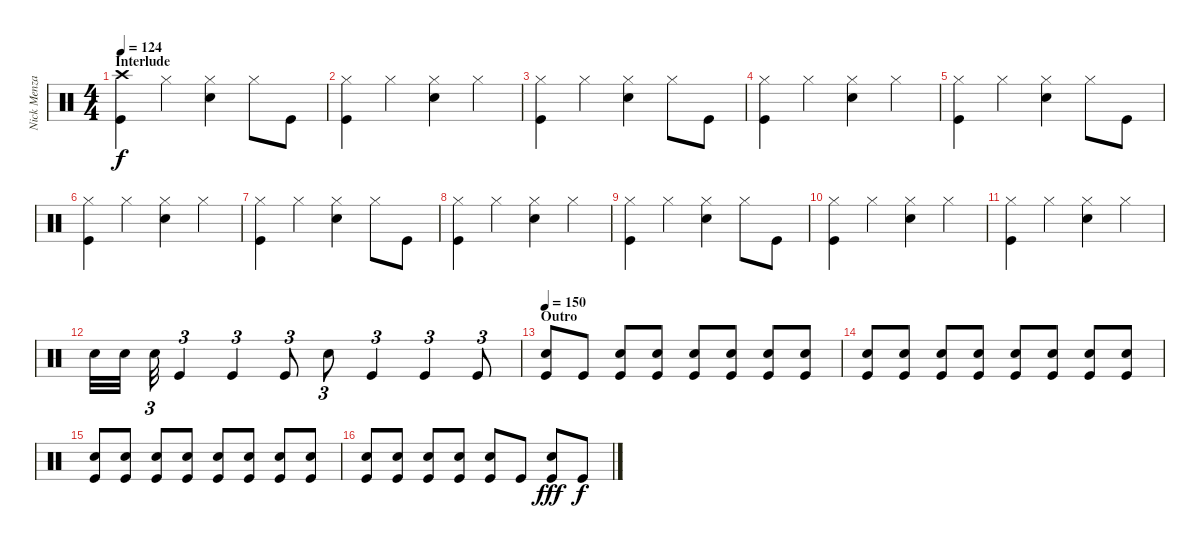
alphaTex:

\track ("Nick Menza" "Nick Menza") {instrument percussion}
\staff {score}
\articulation defaults
\ts (4 4)
\section ("" "Interlude")
\tempo 124
\clef neutral
\ks c
("Crash high (hit)" "Kick (hit)").4{dy f} "Hi-Hat (closed)".4 ("Hi-Hat (closed)" "Snare (hit) 2").4 "Hi-Hat (closed)".8 "Kick (hit)".8 |
("Hi-Hat (closed)" "Kick (hit)").4 "Hi-Hat (closed)".4 ("Hi-Hat (closed)" "Snare (hit) 2").4 "Hi-Hat (closed)".4 |
("Hi-Hat (closed)" "Kick (hit)").4 "Hi-Hat (closed)".4 ("Hi-Hat (closed)" "Snare (hit) 2").4 "Hi-Hat (closed)".8 "Kick (hit)".8 |
("Hi-Hat (closed)" "Kick (hit)").4 "Hi-Hat (closed)".4 ("Hi-Hat (closed)" "Snare (hit) 2").4 "Hi-Hat (closed)".4 |
("Hi-Hat (closed)" "Kick (hit)").4 "Hi-Hat (closed)".4 ("Hi-Hat (closed)" "Snare (hit) 2").4 "Hi-Hat (closed)".8 "Kick (hit)".8 |
("Hi-Hat (closed)" "Kick (hit)").4 "Hi-Hat (closed)".4 ("Hi-Hat (closed)" "Snare (hit) 2").4 "Hi-Hat (closed)".4 |
("Hi-Hat (closed)" "Kick (hit)").4 "Hi-Hat (closed)".4 ("Hi-Hat (closed)" "Snare (hit) 2").4 "Hi-Hat (closed)".8 "Kick (hit)".8 |
("Hi-Hat (closed)" "Kick (hit)").4 "Hi-Hat (closed)".4 ("Hi-Hat (closed)" "Snare (hit) 2").4 "Hi-Hat (closed)".4 |
("Hi-Hat (closed)" "Kick (hit)").4 "Hi-Hat (closed)".4 ("Hi-Hat (closed)" "Snare (hit) 2").4 "Hi-Hat (closed)".8 "Kick (hit)".8 |
("Hi-Hat (closed)" "Kick (hit)").4 "Hi-Hat (closed)".4 ("Hi-Hat (closed)" "Snare (hit) 2").4 "Hi-Hat (closed)".4 |
("Hi-Hat (closed)" "Kick (hit)").4 "Hi-Hat (closed)".4 ("Hi-Hat (closed)" "Snare (hit) 2").4 "Hi-Hat (closed)".4 |
"Snare (hit) 2".32 "Snare (hit) 2".32 "Snare (hit) 2".32{tu (3 2)} "Kick (hit)".4{tu (3 2)} "Kick (hit)".4{tu (3 2)} "Kick (hit)".8{tu (3 2)} "Snare (hit) 2".8{tu (3 2)} "Kick (hit)".4{tu (3 2)} "Kick (hit)".4{tu (3 2)} "Kick (hit)".8{tu (3 2) volume 8} |
\section ("" "Outro")
\tempo 150
("Snare (hit) 2" "Kick (hit)").8{volume 13} "Kick (hit)".8 ("Snare (hit) 2" "Kick (hit)").8 ("Snare (hit) 2" "Kick (hit)").8 ("Snare (hit) 2" "Kick (hit)").8 ("Snare (hit) 2" "Kick (hit)").8 ("Snare (hit) 2" "Kick (hit)").8 ("Snare (hit) 2" "Kick (hit)").8 |
("Snare (hit) 2" "Kick (hit)").8 ("Snare (hit) 2" "Kick (hit)").8 ("Snare (hit) 2" "Kick (hit)").8 ("Snare (hit) 2" "Kick (hit)").8 ("Snare (hit) 2" "Kick (hit)").8 ("Snare (hit) 2" "Kick (hit)").8 ("Snare (hit) 2" "Kick (hit)").8 ("Snare (hit) 2" "Kick (hit)").8 |
("Snare (hit) 2" "Kick (hit)").8 ("Snare (hit) 2" "Kick (hit)").8 ("Snare (hit) 2" "Kick (hit)").8 ("Snare (hit) 2" "Kick (hit)").8 ("Snare (hit) 2" "Kick (hit)").8 ("Snare (hit) 2" "Kick (hit)").8 ("Snare (hit) 2" "Kick (hit)").8 ("Snare (hit) 2" "Kick (hit)").8 |
("Snare (hit) 2" "Kick (hit)").8 ("Snare (hit) 2" "Kick (hit)").8 ("Snare (hit) 2" "Kick (hit)").8 ("Snare (hit) 2" "Kick (hit)").8 ("Snare (hit) 2" "Kick (hit)").8 "Kick (hit)".8 ("Snare (hit) 2" "Kick (hit)").8{dy fff} "Kick (hit)".8{dy f}
